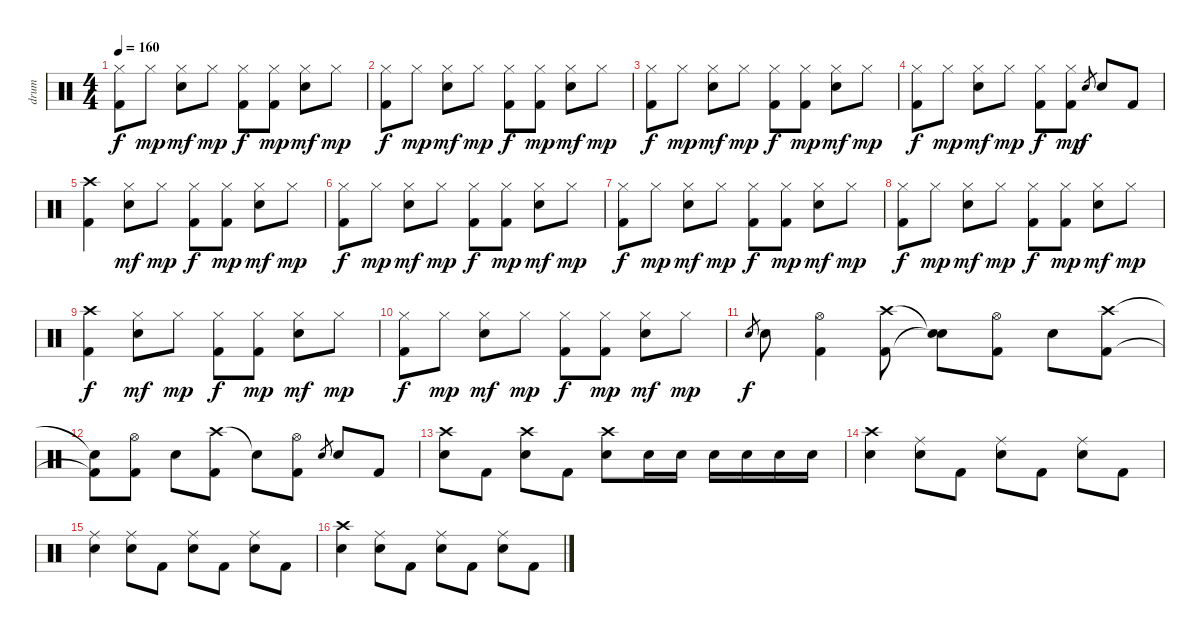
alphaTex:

\track ("drum" "drum") {instrument percussion}
\staff {score}
\articulation defaults
\ts (4 4)
\tempo 160
\clef neutral
\ks c
("Hi-Hat (closed)" "Kick (hit) 2").8{dy f} "Hi-Hat (closed)".8{dy mp} ("Hi-Hat (closed)" "Electric Snare (hit)").8{dy mf} "Hi-Hat (closed)".8{dy mp} ("Hi-Hat (closed)" "Kick (hit) 2").8{dy f} ("Hi-Hat (closed)" "Kick (hit) 2").8{dy mp} ("Hi-Hat (closed)" "Electric Snare (hit)").8{dy mf} "Hi-Hat (closed)".8{dy mp} |
("Hi-Hat (closed)" "Kick (hit) 2").8{dy f} "Hi-Hat (closed)".8{dy mp} ("Hi-Hat (closed)" "Electric Snare (hit)").8{dy mf} "Hi-Hat (closed)".8{dy mp} ("Hi-Hat (closed)" "Kick (hit) 2").8{dy f} ("Hi-Hat (closed)" "Kick (hit) 2").8{dy mp} ("Hi-Hat (closed)" "Electric Snare (hit)").8{dy mf} "Hi-Hat (closed)".8{dy mp} |
("Hi-Hat (closed)" "Kick (hit) 2").8{dy f} "Hi-Hat (closed)".8{dy mp} ("Hi-Hat (closed)" "Electric Snare (hit)").8{dy mf} "Hi-Hat (closed)".8{dy mp} ("Hi-Hat (closed)" "Kick (hit) 2").8{dy f} ("Hi-Hat (closed)" "Kick (hit) 2").8{dy mp} ("Hi-Hat (closed)" "Electric Snare (hit)").8{dy mf} "Hi-Hat (closed)".8{dy mp} |
("Hi-Hat (closed)" "Kick (hit) 2").8{dy f} "Hi-Hat (closed)".8{dy mp} ("Hi-Hat (closed)" "Electric Snare (hit)").8{dy mf} "Hi-Hat (closed)".8{dy mp} ("Hi-Hat (closed)" "Kick (hit) 2").8{dy f} ("Hi-Hat (closed)" "Kick (hit) 2").8{dy mp} "Electric Snare (hit)".8{gr dy f} "Electric Snare (hit)".8 "Kick (hit) 2".8 |
("Crash high (hit)" "Kick (hit) 2").4 ("Hi-Hat (closed)" "Electric Snare (hit)").8{dy mf} "Hi-Hat (closed)".8{dy mp} ("Hi-Hat (closed)" "Kick (hit) 2").8{dy f} ("Hi-Hat (closed)" "Kick (hit) 2").8{dy mp} ("Hi-Hat (closed)" "Electric Snare (hit)").8{dy mf} "Hi-Hat (closed)".8{dy mp} |
("Hi-Hat (closed)" "Kick (hit) 2").8{dy f} "Hi-Hat (closed)".8{dy mp} ("Hi-Hat (closed)" "Electric Snare (hit)").8{dy mf} "Hi-Hat (closed)".8{dy mp} ("Hi-Hat (closed)" "Kick (hit) 2").8{dy f} ("Hi-Hat (closed)" "Kick (hit) 2").8{dy mp} ("Hi-Hat (closed)" "Electric Snare (hit)").8{dy mf} "Hi-Hat (closed)".8{dy mp} |
("Hi-Hat (closed)" "Kick (hit) 2").8{dy f} "Hi-Hat (closed)".8{dy mp} ("Hi-Hat (closed)" "Electric Snare (hit)").8{dy mf} "Hi-Hat (closed)".8{dy mp} ("Hi-Hat (closed)" "Kick (hit) 2").8{dy f} ("Hi-Hat (closed)" "Kick (hit) 2").8{dy mp} ("Hi-Hat (closed)" "Electric Snare (hit)").8{dy mf} "Hi-Hat (closed)".8{dy mp} |
("Hi-Hat (closed)" "Kick (hit) 2").8{dy f} "Hi-Hat (closed)".8{dy mp} ("Hi-Hat (closed)" "Electric Snare (hit)").8{dy mf} "Hi-Hat (closed)".8{dy mp} ("Hi-Hat (closed)" "Kick (hit) 2").8{dy f} ("Hi-Hat (closed)" "Kick (hit) 2").8{dy mp} ("Hi-Hat (closed)" "Electric Snare (hit)").8{dy mf} "Hi-Hat (closed)".8{dy mp} |
("Crash high (hit)" "Kick (hit) 2").4{dy f} ("Hi-Hat (closed)" "Electric Snare (hit)").8{dy mf} "Hi-Hat (closed)".8{dy mp} ("Hi-Hat (closed)" "Kick (hit) 2").8{dy f} ("Hi-Hat (closed)" "Kick (hit) 2").8{dy mp} ("Hi-Hat (closed)" "Electric Snare (hit)").8{dy mf} "Hi-Hat (closed)".8{dy mp} |
("Hi-Hat (closed)" "Kick (hit) 2").8{dy f} "Hi-Hat (closed)".8{dy mp} ("Hi-Hat (closed)" "Electric Snare (hit)").8{dy mf} "Hi-Hat (closed)".8{dy mp} ("Hi-Hat (closed)" "Kick (hit) 2").8{dy f} ("Hi-Hat (closed)" "Kick (hit) 2").8{dy mp} ("Hi-Hat (closed)" "Electric Snare (hit)").8{dy mf} "Hi-Hat (closed)".8{dy mp} |
"Electric Snare (hit)".8{gr dy f} "Electric Snare (hit)".8 ("Hi-Hat (open)" "Kick (hit) 2").4 ("Crash high (hit)" "Kick (hit) 2").8 ("Snare (hit)"{t} "Snare (hit)"{t}).8 ("Hi-Hat (open)" "Kick (hit) 2").8 "Electric Snare (hit)".8 ("Crash high (hit)" "Kick (hit) 2").8 |
("Snare (hit)"{t} "Kick (hit) 2"{t}).8 ("Hi-Hat (open)" "Kick (hit) 2").8 "Electric Snare (hit)".8 ("Crash high (hit)" "Kick (hit) 2").8 "Snare (hit)"{t}.8 ("Hi-Hat (open)" "Kick (hit) 2").8 "Electric Snare (hit)".8{gr} "Electric Snare (hit)".8 "Kick (hit) 2".8 |
("Crash high (hit)" "Electric Snare (hit)").8 "Kick (hit) 2".8 ("Crash high (hit)" "Electric Snare (hit)").8 "Kick (hit) 2".8 ("Crash high (hit)" "Electric Snare (hit)").8 "Electric Snare (hit)".16 "Electric Snare (hit)".16 "Electric Snare (hit)".16 "Electric Snare (hit)".16 "Electric Snare (hit)".16 "Electric Snare (hit)".16 |
("Crash high (hit)" "Electric Snare (hit)").4 ("Ride (middle)" "Electric Snare (hit)").8 "Kick (hit) 2".8 ("Ride (middle)" "Electric Snare (hit)").8 "Kick (hit) 2".8 ("Ride (middle)" "Electric Snare (hit)").8 "Kick (hit) 2".8 |
("Ride (middle)" "Electric Snare (hit)").4 ("Ride (middle)" "Electric Snare (hit)").8 "Kick (hit) 2".8 ("Ride (middle)" "Electric Snare (hit)").8 "Kick (hit) 2".8 ("Ride (middle)" "Electric Snare (hit)").8 "Kick (hit) 2".8 |
("Crash high (hit)" "Electric Snare (hit)").4 ("Ride (middle)" "Electric Snare (hit)").8 "Kick (hit) 2".8 ("Ride (middle)" "Electric Snare (hit)").8 "Kick (hit) 2".8 ("Ride (middle)" "Electric Snare (hit)").8 "Kick (hit) 2".8
